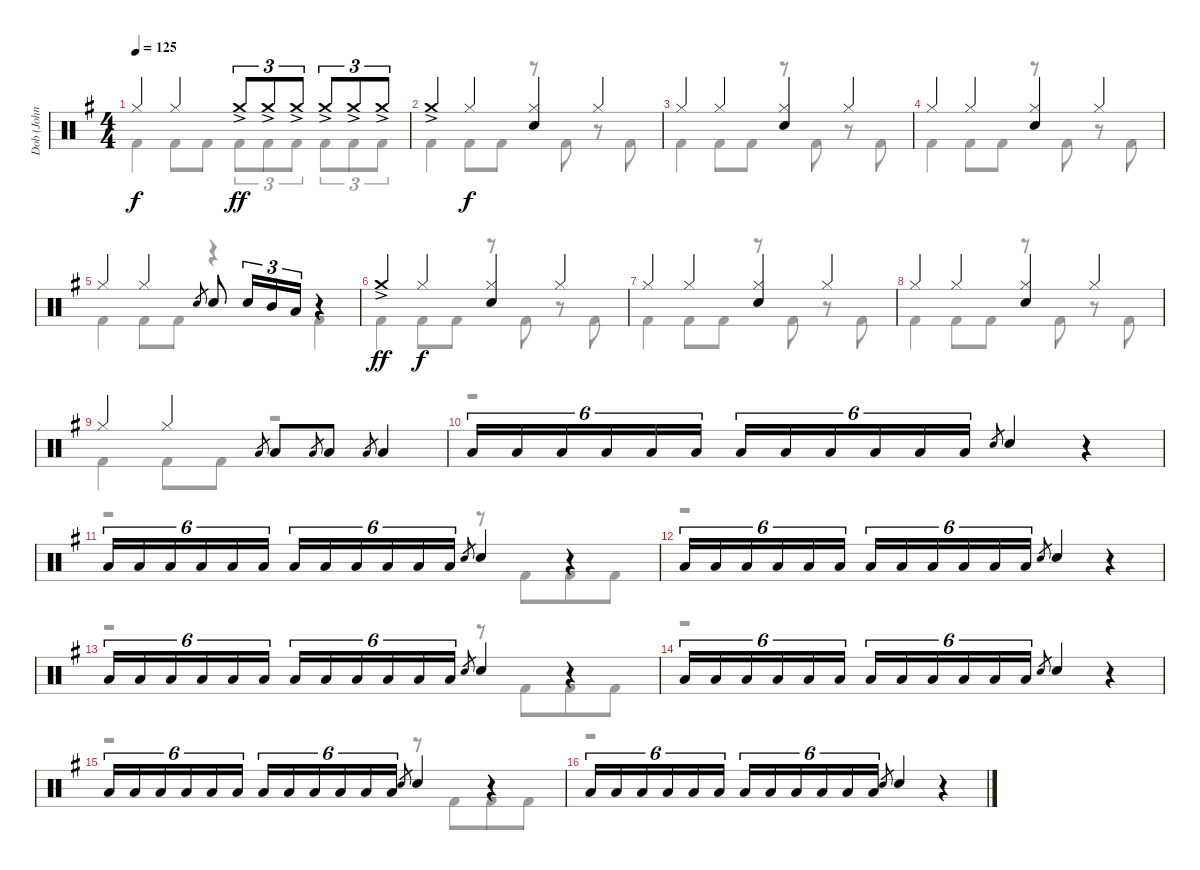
\track ("Dob (John Macaluso)" "Dob (John ") {instrument percussion}
\staff {score}
\articulation defaults
\voice
\ts (4 4)
\tempo 125
\clef neutral
\ks g "Hi-Hat (closed)".4{dy f} "Hi-Hat (closed)".4 "Crash medium (hit)"{ac}.8{tu (3 2) dy ff} "Crash medium (hit)"{ac}.8{tu (3 2)} "Crash medium (hit)"{ac}.8{tu (3 2)} "Crash medium (hit)"{ac}.8{tu (3 2)} "Crash medium (hit)"{ac}.8{tu (3 2)} "Crash medium (hit)"{ac}.8{tu (3 2)}
|
"Crash medium (hit)"{ac}.4 "Hi-Hat (closed)".4{dy f} ("Hi-Hat (closed)" "Electric Snare (hit)").4 "Hi-Hat (closed)".4 |
"Hi-Hat (closed)".4 "Hi-Hat (closed)".4 ("Hi-Hat (closed)" "Electric Snare (hit)").4 "Hi-Hat (closed)".4 |
"Hi-Hat (closed)".4 "Hi-Hat (closed)".4 ("Hi-Hat (closed)" "Electric Snare (hit)").4 "Hi-Hat (closed)".4 |
"Hi-Hat (closed)".4 "Hi-Hat (closed)".4 "Electric Snare (hit)".8{gr} "Electric Snare (hit)".8 "Electric Snare (hit)".16{tu (3 2)} "Mid Tom (hit)".16{tu (3 2)} "Low Tom (hit)".16{tu (3 2)} r.4 |
"Crash medium (hit)"{ac}.4{dy ff} "Hi-Hat (closed)".4{dy f} ("Hi-Hat (closed)" "Electric Snare (hit)").4 "Hi-Hat (closed)".4 |
"Hi-Hat (closed)".4 "Hi-Hat (closed)".4 ("Hi-Hat (closed)" "Electric Snare (hit)").4 "Hi-Hat (closed)".4 |
"Hi-Hat (closed)".4 "Hi-Hat (closed)".4 ("Hi-Hat (closed)" "Electric Snare (hit)").4 "Hi-Hat (closed)".4 |
"Hi-Hat (closed)".4 "Hi-Hat (closed)".4 "Low Tom (hit)".8{gr} "Low Tom (hit)".8 "Low Tom (hit)".8{gr} "Low Tom (hit)".8 "Low Tom (hit)".8{gr} "Low Tom (hit)".4 |
"Low Tom (hit)".16{tu (6 4)} "Low Tom (hit)".16{tu (6 4)} "Low Tom (hit)".16{tu (6 4)} "Low Tom (hit)".16{tu (6 4)} "Low Tom (hit)".16{tu (6 4)} "Low Tom (hit)".16{tu (6 4)} "Low Tom (hit)".16{tu (6 4)} "Low Tom (hit)".16{tu (6 4)} "Low Tom (hit)".16{tu (6 4)} "Low Tom (hit)".16{tu (6 4)} "Low Tom (hit)".16{tu (6 4)} "Low Tom (hit)".16{tu (6 4)} "Electric Snare (hit)".8{gr} "Electric Snare (hit)".4 r.4 |
"Low Tom (hit)".16{tu (6 4)} "Low Tom (hit)".16{tu (6 4)} "Low Tom (hit)".16{tu (6 4)} "Low Tom (hit)".16{tu (6 4)} "Low Tom (hit)".16{tu (6 4)} "Low Tom (hit)".16{tu (6 4)} "Low Tom (hit)".16{tu (6 4)} "Low Tom (hit)".16{tu (6 4)} "Low Tom (hit)".16{tu (6 4)} "Low Tom (hit)".16{tu (6 4)} "Low Tom (hit)".16{tu (6 4)} "Low Tom (hit)".16{tu (6 4)} "Electric Snare (hit)".8{gr} "Electric Snare (hit)".4 r.4 |
"Low Tom (hit)".16{tu (6 4)} "Low Tom (hit)".16{tu (6 4)} "Low Tom (hit)".16{tu (6 4)} "Low Tom (hit)".16{tu (6 4)} "Low Tom (hit)".16{tu (6 4)} "Low Tom (hit)".16{tu (6 4)} "Low Tom (hit)".16{tu (6 4)} "Low Tom (hit)".16{tu (6 4)} "Low Tom (hit)".16{tu (6 4)} "Low Tom (hit)".16{tu (6 4)} "Low Tom (hit)".16{tu (6 4)} "Low Tom (hit)".16{tu (6 4)} "Electric Snare (hit)".8{gr} "Electric Snare (hit)".4 r.4 |
"Low Tom (hit)".16{tu (6 4)} "Low Tom (hit)".16{tu (6 4)} "Low Tom (hit)".16{tu (6 4)} "Low Tom (hit)".16{tu (6 4)} "Low Tom (hit)".16{tu (6 4)} "Low Tom (hit)".16{tu (6 4)} "Low Tom (hit)".16{tu (6 4)} "Low Tom (hit)".16{tu (6 4)} "Low Tom (hit)".16{tu (6 4)} "Low Tom (hit)".16{tu (6 4)} "Low Tom (hit)".16{tu (6 4)} "Low Tom (hit)".16{tu (6 4)} "Electric Snare (hit)".8{gr} "Electric Snare (hit)".4 r.4 |
"Low Tom (hit)".16{tu (6 4)} "Low Tom (hit)".16{tu (6 4)} "Low Tom (hit)".16{tu (6 4)} "Low Tom (hit)".16{tu (6 4)} "Low Tom (hit)".16{tu (6 4)} "Low Tom (hit)".16{tu (6 4)} "Low Tom (hit)".16{tu (6 4)} "Low Tom (hit)".16{tu (6 4)} "Low Tom (hit)".16{tu (6 4)} "Low Tom (hit)".16{tu (6 4)} "Low Tom (hit)".16{tu (6 4)} "Low Tom (hit)".16{tu (6 4)} "Electric Snare (hit)".8{gr} "Electric Snare (hit)".4 r.4 |
"Low Tom (hit)".16{tu (6 4)} "Low Tom (hit)".16{tu (6 4)} "Low Tom (hit)".16{tu (6 4)} "Low Tom (hit)".16{tu (6 4)} "Low Tom (hit)".16{tu (6 4)} "Low Tom (hit)".16{tu (6 4)} "Low Tom (hit)".16{tu (6 4)} "Low Tom (hit)".16{tu (6 4)} "Low Tom (hit)".16{tu (6 4)} "Low Tom (hit)".16{tu (6 4)} "Low Tom (hit)".16{tu (6 4)} "Low Tom (hit)".16{tu (6 4)} "Electric Snare (hit)".8{gr} "Electric Snare (hit)".4 r.4 |
"Low Tom (hit)".16{tu (6 4)} "Low Tom (hit)".16{tu (6 4)} "Low Tom (hit)".16{tu (6 4)} "Low Tom (hit)".16{tu (6 4)} "Low Tom (hit)".16{tu (6 4)} "Low Tom (hit)".16{tu (6 4)} "Low Tom (hit)".16{tu (6 4)} "Low Tom (hit)".16{tu (6 4)} "Low Tom (hit)".16{tu (6 4)} "Low Tom (hit)".16{tu (6 4)} "Low Tom (hit)".16{tu (6 4)} "Low Tom (hit)".16{tu (6 4)} "Electric Snare (hit)".8{gr} "Electric Snare (hit)".4 r.4
\voice
\clef neutral
\ottava regular
\simile none
\ks g "Kick (hit) 2".4{dy f} "Kick (hit) 2".8 "Kick (hit) 2".8 "Kick (hit) 2".8{tu (3 2)} "Kick (hit) 2".8{tu (3 2)} "Kick (hit) 2".8{tu (3 2)} "Kick (hit) 2".8{tu (3 2)} "Kick (hit) 2".8{tu (3 2)} "Kick (hit) 2".8{tu (3 2)}
|
"Kick (hit) 2".4 "Kick (hit) 2".8 "Kick (hit) 2".8 r.8 "Kick (hit) 2".8 r.8 "Kick (hit) 2".8 |
"Kick (hit) 2".4 "Kick (hit) 2".8 "Kick (hit) 2".8 r.8 "Kick (hit) 2".8 r.8 "Kick (hit) 2".8 |
"Kick (hit) 2".4 "Kick (hit) 2".8 "Kick (hit) 2".8 r.8 "Kick (hit) 2".8 r.8 "Kick (hit) 2".8 |
"Kick (hit) 2".4 "Kick (hit) 2".8 "Kick (hit) 2".8 r.4 "Kick (hit) 2".4 |
"Kick (hit) 2".4 "Kick (hit) 2".8 "Kick (hit) 2".8 r.8 "Kick (hit) 2".8 r.8 "Kick (hit) 2".8 |
"Kick (hit) 2".4 "Kick (hit) 2".8 "Kick (hit) 2".8 r.8 "Kick (hit) 2".8 r.8 "Kick (hit) 2".8 |
"Kick (hit) 2".4 "Kick (hit) 2".8 "Kick (hit) 2".8 r.8 "Kick (hit) 2".8 r.8 "Kick (hit) 2".8 |
"Kick (hit) 2".4 "Kick (hit) 2".8 "Kick (hit) 2".8 r.2 |
r.1 |
r.2 r.8 "Kick (hit) 2".8{beam merge} "Kick (hit) 2".8 "Kick (hit) 2".8 |
r.1 |
r.2 r.8 "Kick (hit) 2".8{beam merge} "Kick (hit) 2".8 "Kick (hit) 2".8 |
r.1 |
r.2 r.8 "Kick (hit) 2".8{beam merge} "Kick (hit) 2".8 "Kick (hit) 2".8 |
r.1
